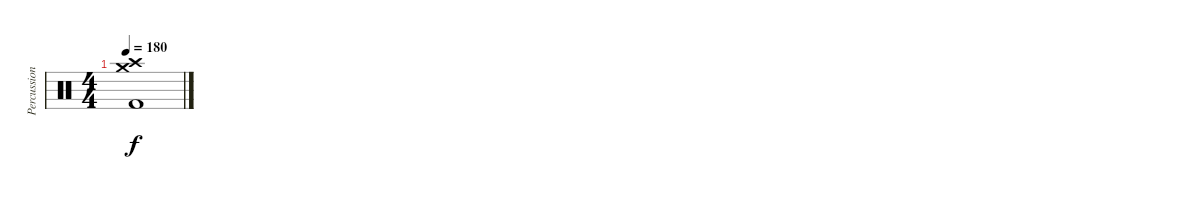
\track ("Percussion" "Percussion") {instrument percussion}
\staff {score}
\articulation defaults
\ts (4 4)
\tempo 180
\clef neutral
\ks c
("Crash high (hit)" "Crash medium (hit)" "Kick (hit) 2").1{dy f}
